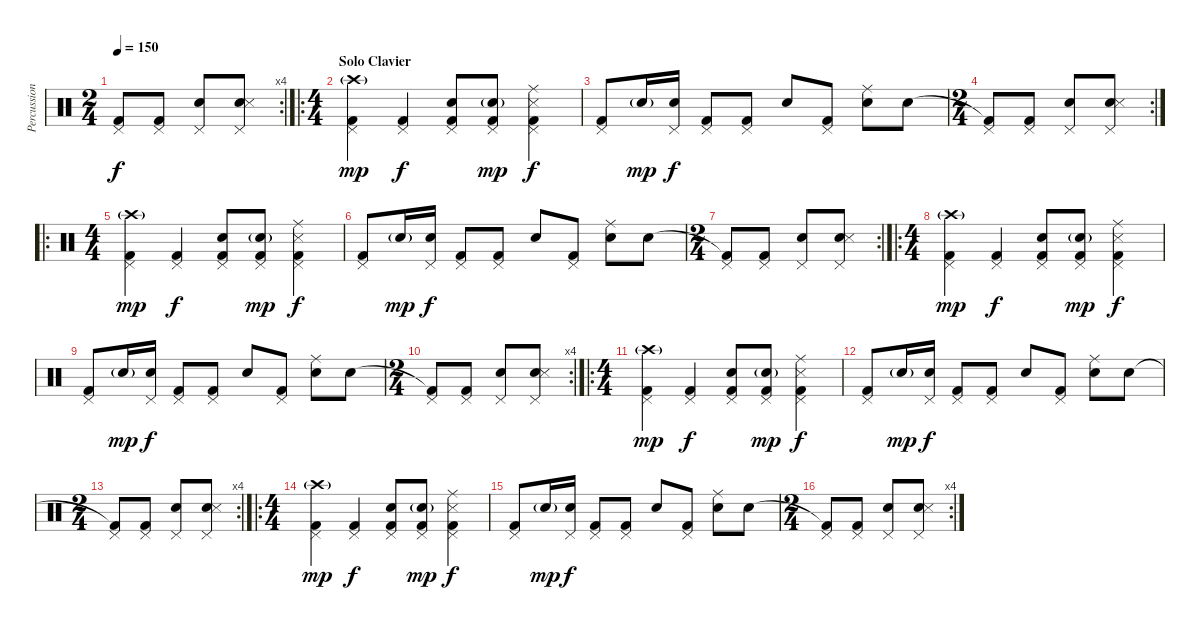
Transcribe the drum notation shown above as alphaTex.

\track ("Percussions" "Percussion") {instrument percussion}
\staff {score}
\articulation defaults
\rc 4
\ts (2 4)
\tempo 150
\clef neutral
\ks c
("Kick (hit) 2"{t} "Pedal Hi-Hat (hit)").8{dy f} ("Kick (hit) 2" "Pedal Hi-Hat (hit)").8 ("Pedal Hi-Hat (hit)" "Snare (hit) 2").8 ("Pedal Hi-Hat (hit)" "Snare (hit) 2" "Snare (side stick) 3").8 |
\ro
\ts (4 4)
\section ("" "Solo Clavier")
("Kick (hit) 2" "Pedal Hi-Hat (hit)" "Crash high (hit)"{g}).4{dy mp} ("Kick (hit) 2" "Pedal Hi-Hat (hit)").4{dy f} ("Kick (hit) 2" "Pedal Hi-Hat (hit)" "Snare (hit) 2").8 ("Kick (hit) 2" "Pedal Hi-Hat (hit)" "Snare (hit) 2"{g}).8{dy mp} ("Kick (hit) 2" "Pedal Hi-Hat (hit)" "Snare (side stick) 3" "Ride (middle)").4{dy f} |
("Kick (hit) 2" "Pedal Hi-Hat (hit)").8 "Snare (hit) 2"{g}.16{dy mp} ("Pedal Hi-Hat (hit)" "Snare (hit) 2").16{dy f} ("Kick (hit) 2" "Pedal Hi-Hat (hit)").8 ("Kick (hit) 2" "Pedal Hi-Hat (hit)").8 "Snare (hit) 2".8 ("Kick (hit) 2" "Pedal Hi-Hat (hit)").8 ("Snare (hit) 2" "Ride (middle)").8 "Snare (hit) 2".8 |
\rc 2
\ts (2 4)
("Kick (hit) 2"{t} "Pedal Hi-Hat (hit)").8 ("Kick (hit) 2" "Pedal Hi-Hat (hit)").8 ("Pedal Hi-Hat (hit)" "Snare (hit) 2").8 ("Pedal Hi-Hat (hit)" "Snare (hit) 2" "Snare (side stick) 3").8 |
\ro
\ts (4 4)
("Kick (hit) 2" "Pedal Hi-Hat (hit)" "Crash high (hit)"{g}).4{dy mp} ("Kick (hit) 2" "Pedal Hi-Hat (hit)").4{dy f} ("Kick (hit) 2" "Pedal Hi-Hat (hit)" "Snare (hit) 2").8 ("Kick (hit) 2" "Pedal Hi-Hat (hit)" "Snare (hit) 2"{g}).8{dy mp} ("Kick (hit) 2" "Pedal Hi-Hat (hit)" "Snare (side stick) 3" "Ride (middle)").4{dy f} |
("Kick (hit) 2" "Pedal Hi-Hat (hit)").8 "Snare (hit) 2"{g}.16{dy mp} ("Pedal Hi-Hat (hit)" "Snare (hit) 2").16{dy f} ("Kick (hit) 2" "Pedal Hi-Hat (hit)").8 ("Kick (hit) 2" "Pedal Hi-Hat (hit)").8 "Snare (hit) 2".8 ("Kick (hit) 2" "Pedal Hi-Hat (hit)").8 ("Snare (hit) 2" "Ride (middle)").8 "Snare (hit) 2".8 |
\rc 2
\ts (2 4)
("Kick (hit) 2"{t} "Pedal Hi-Hat (hit)").8 ("Kick (hit) 2" "Pedal Hi-Hat (hit)").8 ("Pedal Hi-Hat (hit)" "Snare (hit) 2").8 ("Pedal Hi-Hat (hit)" "Snare (hit) 2" "Snare (side stick) 3").8 |
\ro
\ts (4 4)
("Kick (hit) 2" "Pedal Hi-Hat (hit)" "Crash high (hit)"{g}).4{dy mp} ("Kick (hit) 2" "Pedal Hi-Hat (hit)").4{dy f} ("Kick (hit) 2" "Pedal Hi-Hat (hit)" "Snare (hit) 2").8 ("Kick (hit) 2" "Pedal Hi-Hat (hit)" "Snare (hit) 2"{g}).8{dy mp} ("Kick (hit) 2" "Pedal Hi-Hat (hit)" "Snare (side stick) 3" "Ride (middle)").4{dy f} |
("Kick (hit) 2" "Pedal Hi-Hat (hit)").8 "Snare (hit) 2"{g}.16{dy mp} ("Pedal Hi-Hat (hit)" "Snare (hit) 2").16{dy f} ("Kick (hit) 2" "Pedal Hi-Hat (hit)").8 ("Kick (hit) 2" "Pedal Hi-Hat (hit)").8 "Snare (hit) 2".8 ("Kick (hit) 2" "Pedal Hi-Hat (hit)").8 ("Snare (hit) 2" "Ride (middle)").8 "Snare (hit) 2".8 |
\rc 4
\ts (2 4)
("Kick (hit) 2"{t} "Pedal Hi-Hat (hit)").8 ("Kick (hit) 2" "Pedal Hi-Hat (hit)").8 ("Pedal Hi-Hat (hit)" "Snare (hit) 2").8 ("Pedal Hi-Hat (hit)" "Snare (hit) 2" "Snare (side stick) 3").8 |
\ro
\ts (4 4)
("Kick (hit) 2" "Pedal Hi-Hat (hit)" "Crash high (hit)"{g}).4{dy mp} ("Kick (hit) 2" "Pedal Hi-Hat (hit)").4{dy f} ("Kick (hit) 2" "Pedal Hi-Hat (hit)" "Snare (hit) 2").8 ("Kick (hit) 2" "Pedal Hi-Hat (hit)" "Snare (hit) 2"{g}).8{dy mp} ("Kick (hit) 2" "Pedal Hi-Hat (hit)" "Snare (side stick) 3" "Ride (middle)").4{dy f} |
("Kick (hit) 2" "Pedal Hi-Hat (hit)").8 "Snare (hit) 2"{g}.16{dy mp} ("Pedal Hi-Hat (hit)" "Snare (hit) 2").16{dy f} ("Kick (hit) 2" "Pedal Hi-Hat (hit)").8 ("Kick (hit) 2" "Pedal Hi-Hat (hit)").8 "Snare (hit) 2".8 ("Kick (hit) 2" "Pedal Hi-Hat (hit)").8 ("Snare (hit) 2" "Ride (middle)").8 "Snare (hit) 2".8 |
\rc 4
\ts (2 4)
("Kick (hit) 2"{t} "Pedal Hi-Hat (hit)").8 ("Kick (hit) 2" "Pedal Hi-Hat (hit)").8 ("Pedal Hi-Hat (hit)" "Snare (hit) 2").8 ("Pedal Hi-Hat (hit)" "Snare (hit) 2" "Snare (side stick) 3").8 |
\ro
\ts (4 4)
("Kick (hit) 2" "Pedal Hi-Hat (hit)" "Crash high (hit)"{g}).4{dy mp} ("Kick (hit) 2" "Pedal Hi-Hat (hit)").4{dy f} ("Kick (hit) 2" "Pedal Hi-Hat (hit)" "Snare (hit) 2").8 ("Kick (hit) 2" "Pedal Hi-Hat (hit)" "Snare (hit) 2"{g}).8{dy mp} ("Kick (hit) 2" "Pedal Hi-Hat (hit)" "Snare (side stick) 3" "Ride (middle)").4{dy f} |
("Kick (hit) 2" "Pedal Hi-Hat (hit)").8 "Snare (hit) 2"{g}.16{dy mp} ("Pedal Hi-Hat (hit)" "Snare (hit) 2").16{dy f} ("Kick (hit) 2" "Pedal Hi-Hat (hit)").8 ("Kick (hit) 2" "Pedal Hi-Hat (hit)").8 "Snare (hit) 2".8 ("Kick (hit) 2" "Pedal Hi-Hat (hit)").8 ("Snare (hit) 2" "Ride (middle)").8 "Snare (hit) 2".8 |
\rc 4
\ts (2 4)
("Kick (hit) 2"{t} "Pedal Hi-Hat (hit)").8 ("Kick (hit) 2" "Pedal Hi-Hat (hit)").8 ("Pedal Hi-Hat (hit)" "Snare (hit) 2").8 ("Pedal Hi-Hat (hit)" "Snare (hit) 2" "Snare (side stick) 3").8
